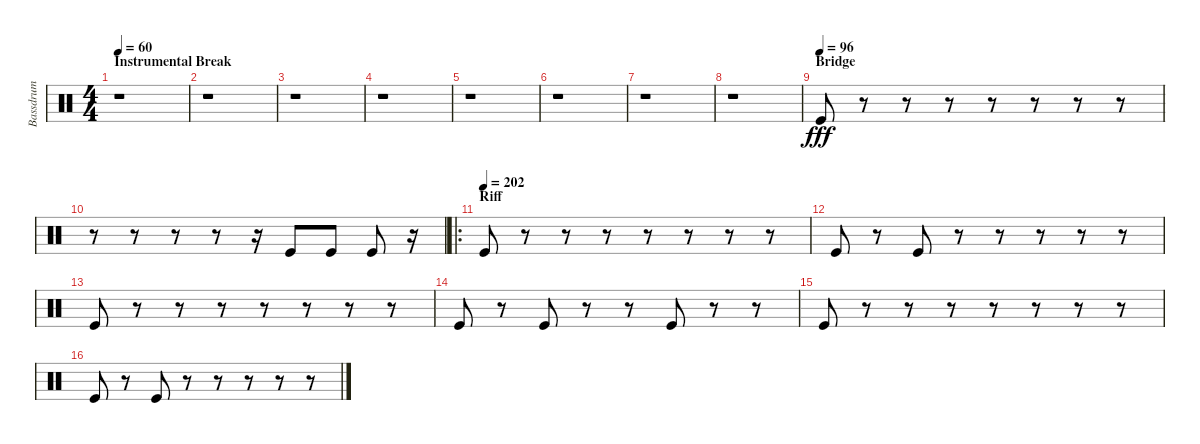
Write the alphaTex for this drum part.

\track ("Bassdrum" "Bassdrum") {instrument percussion}
\staff {score}
\articulation defaults
\ts (4 4)
\section ("" "Instrumental Break")
\tempo 60
\clef neutral
\ks c
r.1{dy fff} |
r.1 |
r.1 |
r.1 |
r.1 |
r.1 |
r.1 |
r.1 |
\section ("" "Bridge")
\tempo (96)
"Kick (hit)".8 r.8 r.8 r.8 r.8 r.8 r.8 r.8 |
r.8 r.8 r.8 r.8 r.16 "Kick (hit)".8 "Kick (hit)".8 "Kick (hit)".8 r.16 |
\ro
\section ("" "Riff")
\tempo (202)
"Kick (hit)".8 r.8 r.8 r.8 r.8 r.8 r.8 r.8 |
"Kick (hit)".8 r.8 "Kick (hit)".8 r.8 r.8 r.8 r.8 r.8 |
"Kick (hit)".8 r.8 r.8 r.8 r.8 r.8 r.8 r.8 |
"Kick (hit)".8 r.8 "Kick (hit)".8 r.8 r.8 "Kick (hit)".8 r.8 r.8 |
"Kick (hit)".8 r.8 r.8 r.8 r.8 r.8 r.8 r.8 |
"Kick (hit)".8 r.8 "Kick (hit)".8 r.8 r.8 r.8 r.8 r.8
